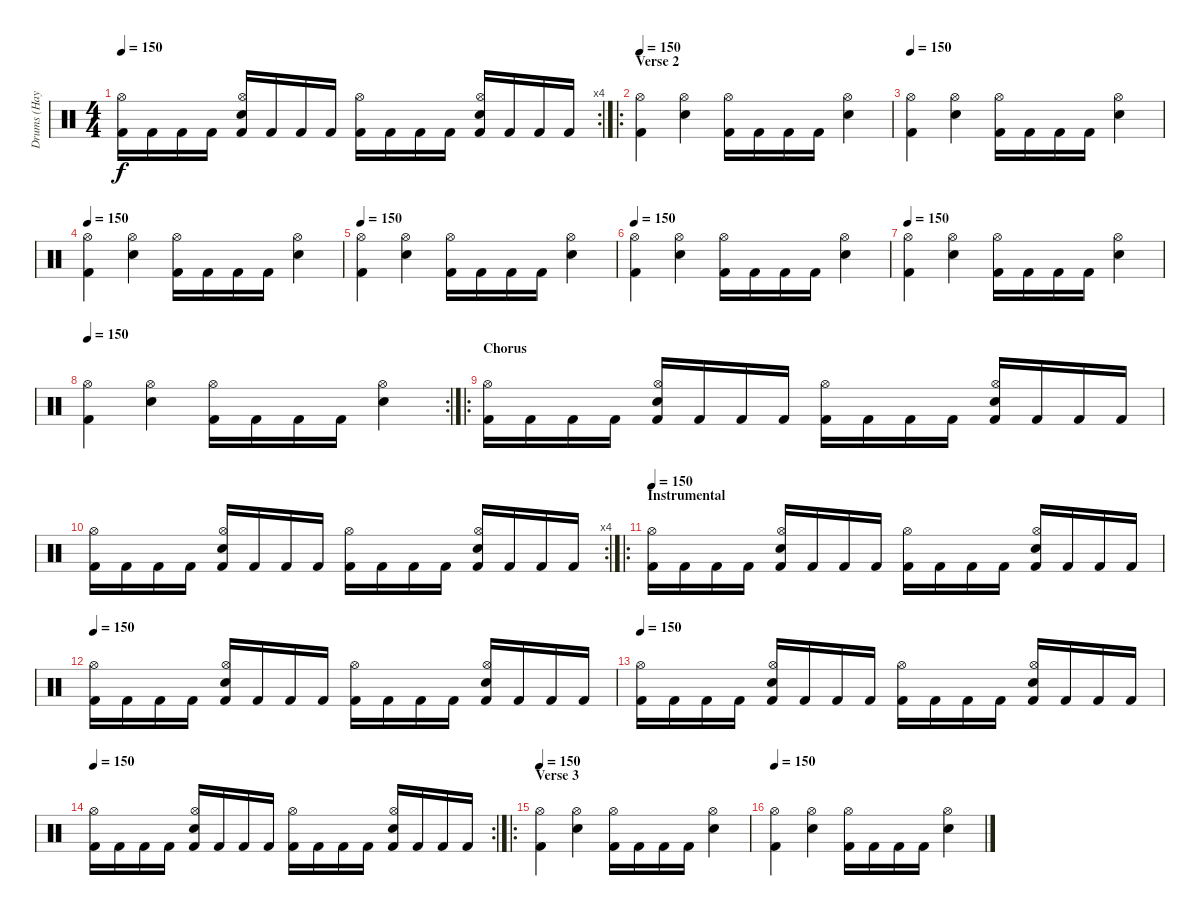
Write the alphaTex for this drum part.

\track ("Drums (Hayden)" "Drums (Hay") {instrument percussion}
\staff {score}
\articulation defaults
\rc 4
\ts (4 4)
\tempo 150
\clef neutral
\ks c
("Kick (hit) 2" "Hi-Hat (open)").16{dy f} "Kick (hit) 2".16 "Kick (hit) 2".16 "Kick (hit) 2".16 ("Kick (hit) 2" "Hi-Hat (open)" "Electric Snare (hit)").16 "Kick (hit) 2".16 "Kick (hit) 2".16 "Kick (hit) 2".16 ("Kick (hit) 2" "Hi-Hat (open)").16 "Kick (hit) 2".16 "Kick (hit) 2".16 "Kick (hit) 2".16 ("Kick (hit) 2" "Hi-Hat (open)" "Electric Snare (hit)").16 "Kick (hit) 2".16 "Kick (hit) 2".16 "Kick (hit) 2".16 |
\ro
\section ("" "Verse 2")
\tempo 150
("Hi-Hat (open)" "Kick (hit) 2").4 ("Hi-Hat (open)" "Electric Snare (hit)").4 ("Hi-Hat (open)" "Kick (hit) 2").16 "Kick (hit) 2".16 "Kick (hit) 2".16 "Kick (hit) 2".16 ("Hi-Hat (open)" "Electric Snare (hit)").4 |
\tempo 150
("Hi-Hat (open)" "Kick (hit) 2").4 ("Hi-Hat (open)" "Electric Snare (hit)").4 ("Hi-Hat (open)" "Kick (hit) 2").16 "Kick (hit) 2".16 "Kick (hit) 2".16 "Kick (hit) 2".16 ("Hi-Hat (open)" "Electric Snare (hit)").4 |
\tempo 150
("Hi-Hat (open)" "Kick (hit) 2").4 ("Hi-Hat (open)" "Electric Snare (hit)").4 ("Hi-Hat (open)" "Kick (hit) 2").16 "Kick (hit) 2".16 "Kick (hit) 2".16 "Kick (hit) 2".16 ("Hi-Hat (open)" "Electric Snare (hit)").4 |
\tempo 150
("Hi-Hat (open)" "Kick (hit) 2").4 ("Hi-Hat (open)" "Electric Snare (hit)").4 ("Hi-Hat (open)" "Kick (hit) 2").16 "Kick (hit) 2".16 "Kick (hit) 2".16 "Kick (hit) 2".16 ("Hi-Hat (open)" "Electric Snare (hit)").4 |
\tempo 150
("Hi-Hat (open)" "Kick (hit) 2").4 ("Hi-Hat (open)" "Electric Snare (hit)").4 ("Hi-Hat (open)" "Kick (hit) 2").16 "Kick (hit) 2".16 "Kick (hit) 2".16 "Kick (hit) 2".16 ("Hi-Hat (open)" "Electric Snare (hit)").4 |
\tempo 150
("Hi-Hat (open)" "Kick (hit) 2").4 ("Hi-Hat (open)" "Electric Snare (hit)").4 ("Hi-Hat (open)" "Kick (hit) 2").16 "Kick (hit) 2".16 "Kick (hit) 2".16 "Kick (hit) 2".16 ("Hi-Hat (open)" "Electric Snare (hit)").4 |
\rc 2
\tempo 150
("Hi-Hat (open)" "Kick (hit) 2").4 ("Hi-Hat (open)" "Electric Snare (hit)").4 ("Hi-Hat (open)" "Kick (hit) 2").16 "Kick (hit) 2".16 "Kick (hit) 2".16 "Kick (hit) 2".16 ("Hi-Hat (open)" "Electric Snare (hit)").4 |
\ro
\section ("" "Chorus")
("Kick (hit) 2" "Hi-Hat (open)").16 "Kick (hit) 2".16 "Kick (hit) 2".16 "Kick (hit) 2".16 ("Kick (hit) 2" "Hi-Hat (open)" "Electric Snare (hit)").16 "Kick (hit) 2".16 "Kick (hit) 2".16 "Kick (hit) 2".16 ("Kick (hit) 2" "Hi-Hat (open)").16 "Kick (hit) 2".16 "Kick (hit) 2".16 "Kick (hit) 2".16 ("Kick (hit) 2" "Hi-Hat (open)" "Electric Snare (hit)").16 "Kick (hit) 2".16 "Kick (hit) 2".16 "Kick (hit) 2".16 |
\rc 4
("Kick (hit) 2" "Hi-Hat (open)").16 "Kick (hit) 2".16 "Kick (hit) 2".16 "Kick (hit) 2".16 ("Kick (hit) 2" "Hi-Hat (open)" "Electric Snare (hit)").16 "Kick (hit) 2".16 "Kick (hit) 2".16 "Kick (hit) 2".16 ("Kick (hit) 2" "Hi-Hat (open)").16 "Kick (hit) 2".16 "Kick (hit) 2".16 "Kick (hit) 2".16 ("Kick (hit) 2" "Hi-Hat (open)" "Electric Snare (hit)").16 "Kick (hit) 2".16 "Kick (hit) 2".16 "Kick (hit) 2".16 |
\ro
\section ("" "Instrumental")
\tempo 150
("Kick (hit) 2" "Hi-Hat (open)").16 "Kick (hit) 2".16 "Kick (hit) 2".16 "Kick (hit) 2".16 ("Kick (hit) 2" "Hi-Hat (open)" "Electric Snare (hit)").16 "Kick (hit) 2".16 "Kick (hit) 2".16 "Kick (hit) 2".16 ("Kick (hit) 2" "Hi-Hat (open)").16 "Kick (hit) 2".16 "Kick (hit) 2".16 "Kick (hit) 2".16 ("Kick (hit) 2" "Hi-Hat (open)" "Electric Snare (hit)").16 "Kick (hit) 2".16 "Kick (hit) 2".16 "Kick (hit) 2".16 |
\tempo 150
("Kick (hit) 2" "Hi-Hat (open)").16 "Kick (hit) 2".16 "Kick (hit) 2".16 "Kick (hit) 2".16 ("Kick (hit) 2" "Hi-Hat (open)" "Electric Snare (hit)").16 "Kick (hit) 2".16 "Kick (hit) 2".16 "Kick (hit) 2".16 ("Kick (hit) 2" "Hi-Hat (open)").16 "Kick (hit) 2".16 "Kick (hit) 2".16 "Kick (hit) 2".16 ("Kick (hit) 2" "Hi-Hat (open)" "Electric Snare (hit)").16 "Kick (hit) 2".16 "Kick (hit) 2".16 "Kick (hit) 2".16 |
\tempo 150
("Kick (hit) 2" "Hi-Hat (open)").16 "Kick (hit) 2".16 "Kick (hit) 2".16 "Kick (hit) 2".16 ("Kick (hit) 2" "Hi-Hat (open)" "Electric Snare (hit)").16 "Kick (hit) 2".16 "Kick (hit) 2".16 "Kick (hit) 2".16 ("Kick (hit) 2" "Hi-Hat (open)").16 "Kick (hit) 2".16 "Kick (hit) 2".16 "Kick (hit) 2".16 ("Kick (hit) 2" "Hi-Hat (open)" "Electric Snare (hit)").16 "Kick (hit) 2".16 "Kick (hit) 2".16 "Kick (hit) 2".16 |
\rc 2
\tempo 150
("Kick (hit) 2" "Hi-Hat (open)").16 "Kick (hit) 2".16 "Kick (hit) 2".16 "Kick (hit) 2".16 ("Kick (hit) 2" "Hi-Hat (open)" "Electric Snare (hit)").16 "Kick (hit) 2".16 "Kick (hit) 2".16 "Kick (hit) 2".16 ("Kick (hit) 2" "Hi-Hat (open)").16 "Kick (hit) 2".16 "Kick (hit) 2".16 "Kick (hit) 2".16 ("Kick (hit) 2" "Hi-Hat (open)" "Electric Snare (hit)").16 "Kick (hit) 2".16 "Kick (hit) 2".16 "Kick (hit) 2".16 |
\ro
\section ("" "Verse 3")
\tempo 150
("Hi-Hat (open)" "Kick (hit) 2").4 ("Hi-Hat (open)" "Electric Snare (hit)").4 ("Hi-Hat (open)" "Kick (hit) 2").16 "Kick (hit) 2".16 "Kick (hit) 2".16 "Kick (hit) 2".16 ("Hi-Hat (open)" "Electric Snare (hit)").4 |
\tempo 150
("Hi-Hat (open)" "Kick (hit) 2").4 ("Hi-Hat (open)" "Electric Snare (hit)").4 ("Hi-Hat (open)" "Kick (hit) 2").16 "Kick (hit) 2".16 "Kick (hit) 2".16 "Kick (hit) 2".16 ("Hi-Hat (open)" "Electric Snare (hit)").4
